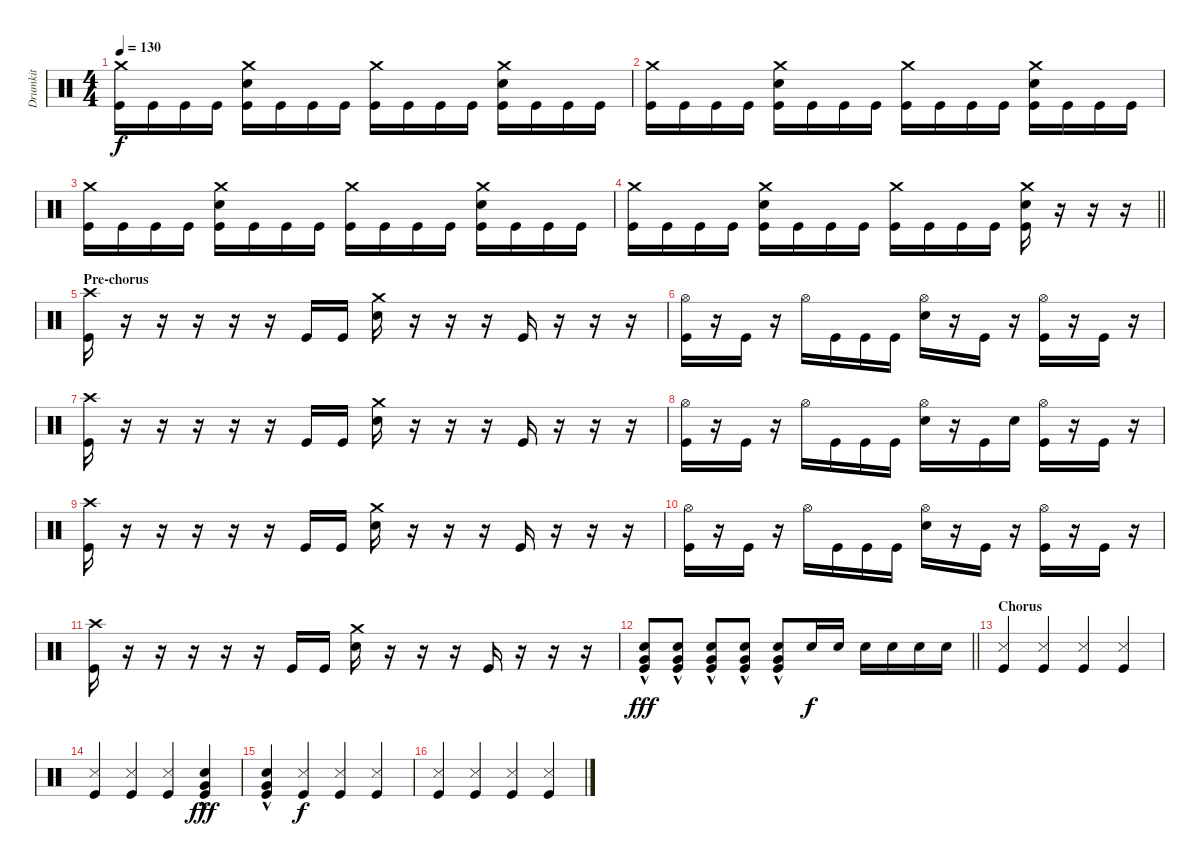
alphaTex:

\track ("Drumkit" "Drumkit") {instrument percussion}
\staff {score}
\articulation defaults
\ts (4 4)
\tempo 130
\clef neutral
\ks c
("Crash medium (hit)" "Kick (hit)").16{dy f} "Kick (hit)".16 "Kick (hit)".16 "Kick (hit)".16 ("Crash medium (hit)" "Snare (hit) 2" "Kick (hit)").16 "Kick (hit)".16 "Kick (hit)".16 "Kick (hit)".16 ("Crash medium (hit)" "Kick (hit)").16 "Kick (hit)".16 "Kick (hit)".16 "Kick (hit)".16 ("Crash medium (hit)" "Snare (hit) 2" "Kick (hit)").16 "Kick (hit)".16 "Kick (hit)".16 "Kick (hit)".16 |
("Crash medium (hit)" "Kick (hit)").16 "Kick (hit)".16 "Kick (hit)".16 "Kick (hit)".16 ("Crash medium (hit)" "Snare (hit) 2" "Kick (hit)").16 "Kick (hit)".16 "Kick (hit)".16 "Kick (hit)".16 ("Crash medium (hit)" "Kick (hit)").16 "Kick (hit)".16 "Kick (hit)".16 "Kick (hit)".16 ("Crash medium (hit)" "Snare (hit) 2" "Kick (hit)").16 "Kick (hit)".16 "Kick (hit)".16 "Kick (hit)".16 |
("Crash medium (hit)" "Kick (hit)").16 "Kick (hit)".16 "Kick (hit)".16 "Kick (hit)".16 ("Crash medium (hit)" "Snare (hit) 2" "Kick (hit)").16 "Kick (hit)".16 "Kick (hit)".16 "Kick (hit)".16 ("Crash medium (hit)" "Kick (hit)").16 "Kick (hit)".16 "Kick (hit)".16 "Kick (hit)".16 ("Crash medium (hit)" "Snare (hit) 2" "Kick (hit)").16 "Kick (hit)".16 "Kick (hit)".16 "Kick (hit)".16 |
\barLineRight lightlight
("Crash medium (hit)" "Kick (hit)").16 "Kick (hit)".16 "Kick (hit)".16 "Kick (hit)".16 ("Crash medium (hit)" "Snare (hit) 2" "Kick (hit)").16 "Kick (hit)".16 "Kick (hit)".16 "Kick (hit)".16 ("Crash medium (hit)" "Kick (hit)").16 "Kick (hit)".16 "Kick (hit)".16 "Kick (hit)".16 ("Crash medium (hit)" "Snare (hit) 2" "Kick (hit)").16 r.16 r.16 r.16 |
\section ("" "Pre-chorus")
("Crash high (hit)" "Kick (hit)").16 r.16 r.16 r.16 r.16 r.16 "Kick (hit)".16 "Kick (hit)".16 ("Crash medium (hit)" "Electric Snare (hit)").16 r.16 r.16 r.16 "Kick (hit)".16 r.16 r.16 r.16 |
("Hi-Hat (open)" "Kick (hit)").16 r.16 "Kick (hit)".16 r.16 "Hi-Hat (open)".16 "Kick (hit)".16 "Kick (hit)".16 "Kick (hit)".16 ("Hi-Hat (open)" "Electric Snare (hit)").16 r.16 "Kick (hit)".16 r.16 ("Hi-Hat (open)" "Kick (hit)").16 r.16 "Kick (hit)".16 r.16 |
("Crash high (hit)" "Kick (hit)").16 r.16 r.16 r.16 r.16 r.16 "Kick (hit)".16 "Kick (hit)".16 ("Crash medium (hit)" "Electric Snare (hit)").16 r.16 r.16 r.16 "Kick (hit)".16 r.16 r.16 r.16 |
("Hi-Hat (open)" "Kick (hit)").16 r.16 "Kick (hit)".16 r.16 "Hi-Hat (open)".16 "Kick (hit)".16 "Kick (hit)".16 "Kick (hit)".16 ("Hi-Hat (open)" "Electric Snare (hit)").16 r.16 "Kick (hit)".16 "Electric Snare (hit)".16 ("Hi-Hat (open)" "Kick (hit)").16 r.16 "Kick (hit)".16 r.16 |
("Crash high (hit)" "Kick (hit)").16 r.16 r.16 r.16 r.16 r.16 "Kick (hit)".16 "Kick (hit)".16 ("Crash medium (hit)" "Electric Snare (hit)").16 r.16 r.16 r.16 "Kick (hit)".16 r.16 r.16 r.16 |
("Hi-Hat (open)" "Kick (hit)").16 r.16 "Kick (hit)".16 r.16 "Hi-Hat (open)".16 "Kick (hit)".16 "Kick (hit)".16 "Kick (hit)".16 ("Hi-Hat (open)" "Electric Snare (hit)").16 r.16 "Kick (hit)".16 r.16 ("Hi-Hat (open)" "Kick (hit)").16 r.16 "Kick (hit)".16 r.16 |
("Crash high (hit)" "Kick (hit)").16 r.16 r.16 r.16 r.16 r.16 "Kick (hit)".16 "Kick (hit)".16 ("Crash medium (hit)" "Electric Snare (hit)").16 r.16 r.16 r.16 "Kick (hit)".16 r.16 r.16 r.16 |
\barLineRight lightlight
("Very Low Tom (hit)"{hac} "Electric Snare (hit)" "Kick (hit)").8{dy fff} ("Very Low Tom (hit)"{hac} "Electric Snare (hit)" "Kick (hit)").8 ("Very Low Tom (hit)"{hac} "Electric Snare (hit)" "Kick (hit)").8 ("Very Low Tom (hit)"{hac} "Electric Snare (hit)" "Kick (hit)").8 ("Very Low Tom (hit)"{hac} "Electric Snare (hit)" "Kick (hit)").8 "Electric Snare (hit)".16{dy f} "Electric Snare (hit)".16 "Electric Snare (hit)".16 "Electric Snare (hit)".16 "Electric Snare (hit)".16 "Electric Snare (hit)".16 |
\section ("" "Chorus")
("Snare (side stick) 3" "Kick (hit)").4 ("Snare (side stick) 3" "Kick (hit)").4 ("Snare (side stick) 3" "Kick (hit)").4 ("Snare (side stick) 3" "Kick (hit)").4 |
("Snare (side stick) 3" "Kick (hit)").4 ("Snare (side stick) 3" "Kick (hit)").4 ("Snare (side stick) 3" "Kick (hit)").4 ("Very Low Tom (hit)"{hac} "Snare (hit) 2" "Kick (hit)").4{dy fff} |
("Very Low Tom (hit)"{hac} "Snare (hit) 2" "Kick (hit)").4 ("Snare (side stick) 3" "Kick (hit)").4{dy f} ("Snare (side stick) 3" "Kick (hit)").4 ("Snare (side stick) 3" "Kick (hit)").4 |
("Snare (side stick) 3" "Kick (hit)").4 ("Snare (side stick) 3" "Kick (hit)").4 ("Snare (side stick) 3" "Kick (hit)").4 ("Snare (side stick) 3" "Kick (hit)").4
